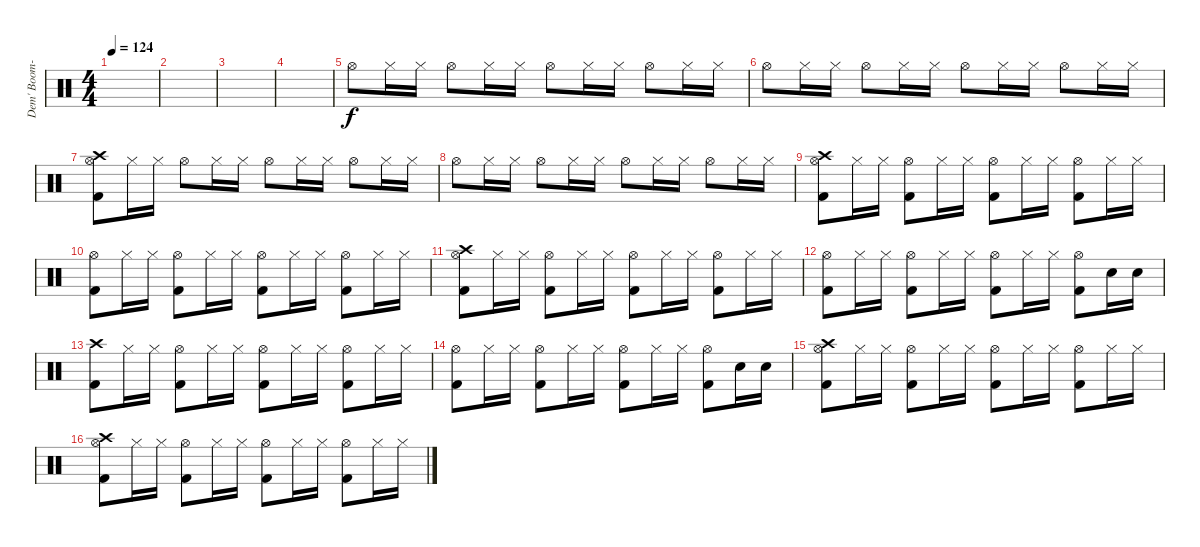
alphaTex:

\track ("Dem' Boom-Booms" "Dem' Boom-") {instrument percussion}
\staff {score}
\articulation defaults
\ts (4 4)
\tempo 124
\clef neutral
\ks c
|
|
|
|
"Hi-Hat (open)".8 "Hi-Hat (closed)".16 "Hi-Hat (closed)".16 "Hi-Hat (open)".8 "Hi-Hat (closed)".16 "Hi-Hat (closed)".16 "Hi-Hat (open)".8 "Hi-Hat (closed)".16 "Hi-Hat (closed)".16 "Hi-Hat (open)".8 "Hi-Hat (closed)".16 "Hi-Hat (closed)".16 |
"Hi-Hat (open)".8 "Hi-Hat (closed)".16 "Hi-Hat (closed)".16 "Hi-Hat (open)".8 "Hi-Hat (closed)".16 "Hi-Hat (closed)".16 "Hi-Hat (open)".8 "Hi-Hat (closed)".16 "Hi-Hat (closed)".16 "Hi-Hat (open)".8 "Hi-Hat (closed)".16 "Hi-Hat (closed)".16 |
("Crash high (hit)" "Hi-Hat (open)" "Kick (hit) 2").8 "Hi-Hat (closed)".16 "Hi-Hat (closed)".16 "Hi-Hat (open)".8 "Hi-Hat (closed)".16 "Hi-Hat (closed)".16 "Hi-Hat (open)".8 "Hi-Hat (closed)".16 "Hi-Hat (closed)".16 "Hi-Hat (open)".8 "Hi-Hat (closed)".16 "Hi-Hat (closed)".16 |
"Hi-Hat (open)".8 "Hi-Hat (closed)".16 "Hi-Hat (closed)".16 "Hi-Hat (open)".8 "Hi-Hat (closed)".16 "Hi-Hat (closed)".16 "Hi-Hat (open)".8 "Hi-Hat (closed)".16 "Hi-Hat (closed)".16 "Hi-Hat (open)".8 "Hi-Hat (closed)".16 "Hi-Hat (closed)".16 |
("Crash high (hit)" "Hi-Hat (open)" "Kick (hit) 2").8 "Hi-Hat (closed)".16 "Hi-Hat (closed)".16 ("Hi-Hat (open)" "Kick (hit) 2").8 "Hi-Hat (closed)".16 "Hi-Hat (closed)".16 ("Hi-Hat (open)" "Kick (hit) 2").8 "Hi-Hat (closed)".16 "Hi-Hat (closed)".16 ("Hi-Hat (open)" "Kick (hit) 2").8 "Hi-Hat (closed)".16 "Hi-Hat (closed)".16 |
("Hi-Hat (open)" "Kick (hit) 2").8 "Hi-Hat (closed)".16 "Hi-Hat (closed)".16 ("Hi-Hat (open)" "Kick (hit) 2").8 "Hi-Hat (closed)".16 "Hi-Hat (closed)".16 ("Hi-Hat (open)" "Kick (hit) 2").8 "Hi-Hat (closed)".16 "Hi-Hat (closed)".16 ("Hi-Hat (open)" "Kick (hit) 2").8 "Hi-Hat (closed)".16 "Hi-Hat (closed)".16 |
("Crash high (hit)" "Hi-Hat (open)" "Kick (hit) 2").8 "Hi-Hat (closed)".16 "Hi-Hat (closed)".16 ("Hi-Hat (open)" "Kick (hit) 2").8 "Hi-Hat (closed)".16 "Hi-Hat (closed)".16 ("Hi-Hat (open)" "Kick (hit) 2").8 "Hi-Hat (closed)".16 "Hi-Hat (closed)".16 ("Hi-Hat (open)" "Kick (hit) 2").8 "Hi-Hat (closed)".16 "Hi-Hat (closed)".16 |
("Hi-Hat (open)" "Kick (hit) 2").8 "Hi-Hat (closed)".16 "Hi-Hat (closed)".16 ("Hi-Hat (open)" "Kick (hit) 2").8 "Hi-Hat (closed)".16 "Hi-Hat (closed)".16 ("Hi-Hat (open)" "Kick (hit) 2").8 "Hi-Hat (closed)".16 "Hi-Hat (closed)".16 ("Hi-Hat (open)" "Kick (hit) 2").8 "Electric Snare (hit)".16 "Electric Snare (hit)".16 |
("Crash high (hit)" "Kick (hit) 2").8 "Hi-Hat (closed)".16 "Hi-Hat (closed)".16 ("Hi-Hat (open)" "Kick (hit) 2").8 "Hi-Hat (closed)".16 "Hi-Hat (closed)".16 ("Hi-Hat (open)" "Kick (hit) 2").8 "Hi-Hat (closed)".16 "Hi-Hat (closed)".16 ("Hi-Hat (open)" "Kick (hit) 2").8 "Hi-Hat (closed)".16 "Hi-Hat (closed)".16 |
("Hi-Hat (open)" "Kick (hit) 2").8 "Hi-Hat (closed)".16 "Hi-Hat (closed)".16 ("Hi-Hat (open)" "Kick (hit) 2").8 "Hi-Hat (closed)".16 "Hi-Hat (closed)".16 ("Hi-Hat (open)" "Kick (hit) 2").8 "Hi-Hat (closed)".16 "Hi-Hat (closed)".16 ("Hi-Hat (open)" "Kick (hit) 2").8 "Electric Snare (hit)".16 "Electric Snare (hit)".16 |
("Crash high (hit)" "Hi-Hat (open)" "Kick (hit) 2").8 "Hi-Hat (closed)".16 "Hi-Hat (closed)".16 ("Hi-Hat (open)" "Kick (hit) 2").8 "Hi-Hat (closed)".16 "Hi-Hat (closed)".16 ("Hi-Hat (open)" "Kick (hit) 2").8 "Hi-Hat (closed)".16 "Hi-Hat (closed)".16 ("Hi-Hat (open)" "Kick (hit) 2").8 "Hi-Hat (closed)".16 "Hi-Hat (closed)".16 |
("Crash high (hit)" "Hi-Hat (open)" "Kick (hit) 2").8 "Hi-Hat (closed)".16 "Hi-Hat (closed)".16 ("Hi-Hat (open)" "Kick (hit) 2").8 "Hi-Hat (closed)".16 "Hi-Hat (closed)".16 ("Hi-Hat (open)" "Kick (hit) 2").8 "Hi-Hat (closed)".16 "Hi-Hat (closed)".16 ("Hi-Hat (open)" "Kick (hit) 2").8 "Hi-Hat (closed)".16 "Hi-Hat (closed)".16
